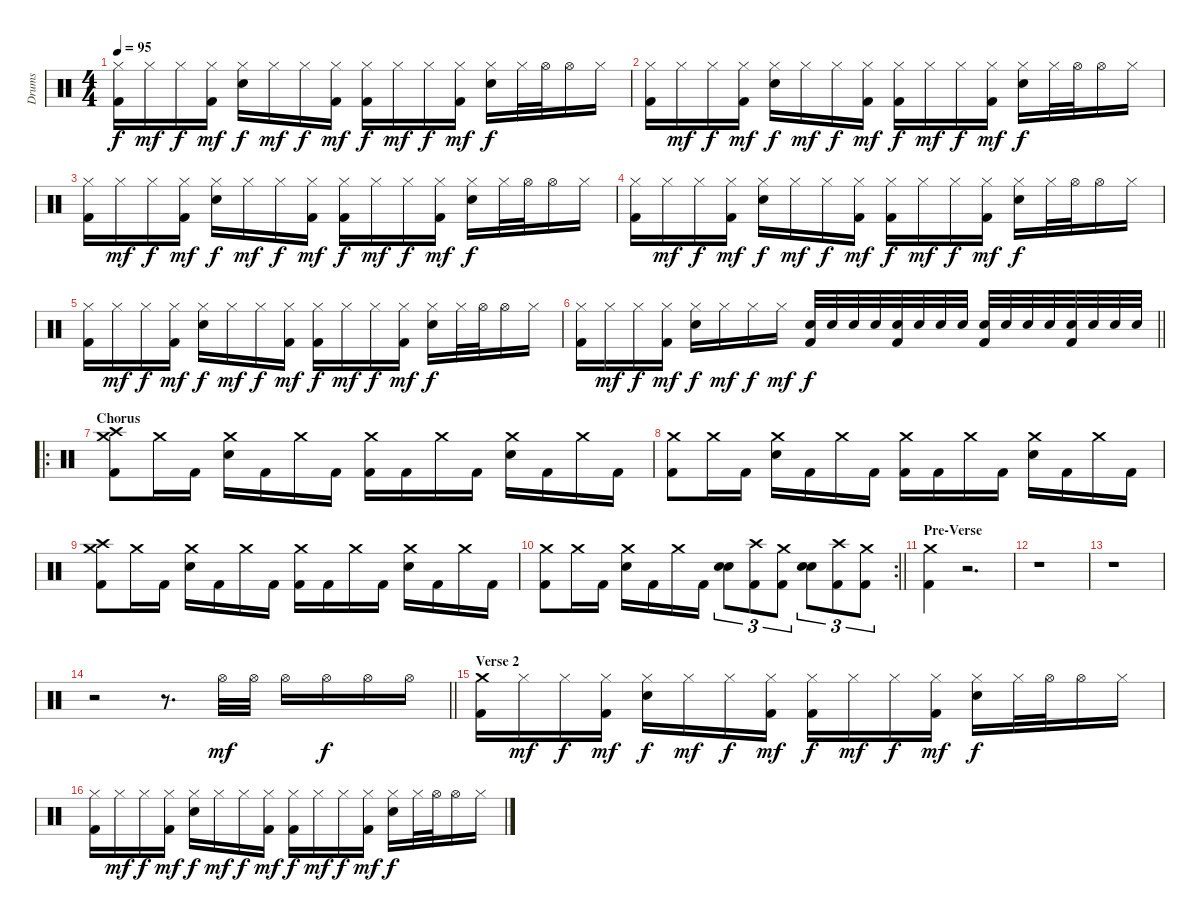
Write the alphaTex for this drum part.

\track ("Drums" "Drums") {instrument percussion}
\staff {score}
\articulation defaults
\ts (4 4)
\tempo 95
\clef neutral
\ks c
("Hi-Hat (closed)" "Kick (hit) 2").16{dy f} "Hi-Hat (closed)".16{dy mf} "Hi-Hat (closed)".16{dy f} ("Kick (hit) 2" "Hi-Hat (closed)").16{dy mf} ("Electric Snare (hit)" "Hi-Hat (closed)").16{dy f} "Hi-Hat (closed)".16{dy mf} "Hi-Hat (closed)".16{dy f} ("Kick (hit) 2" "Hi-Hat (closed)").16{dy mf} ("Kick (hit) 2" "Hi-Hat (closed)").16{dy f} "Hi-Hat (closed)".16{dy mf} "Hi-Hat (closed)".16{dy f} ("Kick (hit) 2" "Hi-Hat (closed)").16{dy mf} ("Electric Snare (hit)" "Hi-Hat (closed)").16{dy f} "Hi-Hat (closed)".32 "Hi-Hat (open)".32 "Hi-Hat (open)".16 "Hi-Hat (closed)".16 |
("Hi-Hat (closed)" "Kick (hit) 2").16 "Hi-Hat (closed)".16{dy mf} "Hi-Hat (closed)".16{dy f} ("Kick (hit) 2" "Hi-Hat (closed)").16{dy mf} ("Electric Snare (hit)" "Hi-Hat (closed)").16{dy f} "Hi-Hat (closed)".16{dy mf} "Hi-Hat (closed)".16{dy f} ("Kick (hit) 2" "Hi-Hat (closed)").16{dy mf} ("Kick (hit) 2" "Hi-Hat (closed)").16{dy f} "Hi-Hat (closed)".16{dy mf} "Hi-Hat (closed)".16{dy f} ("Kick (hit) 2" "Hi-Hat (closed)").16{dy mf} ("Electric Snare (hit)" "Hi-Hat (closed)").16{dy f} "Hi-Hat (closed)".32 "Hi-Hat (open)".32 "Hi-Hat (open)".16 "Hi-Hat (closed)".16 |
("Hi-Hat (closed)" "Kick (hit) 2").16 "Hi-Hat (closed)".16{dy mf} "Hi-Hat (closed)".16{dy f} ("Kick (hit) 2" "Hi-Hat (closed)").16{dy mf} ("Electric Snare (hit)" "Hi-Hat (closed)").16{dy f} "Hi-Hat (closed)".16{dy mf} "Hi-Hat (closed)".16{dy f} ("Kick (hit) 2" "Hi-Hat (closed)").16{dy mf} ("Kick (hit) 2" "Hi-Hat (closed)").16{dy f} "Hi-Hat (closed)".16{dy mf} "Hi-Hat (closed)".16{dy f} ("Kick (hit) 2" "Hi-Hat (closed)").16{dy mf} ("Electric Snare (hit)" "Hi-Hat (closed)").16{dy f} "Hi-Hat (closed)".32 "Hi-Hat (open)".32 "Hi-Hat (open)".16 "Hi-Hat (closed)".16 |
("Hi-Hat (closed)" "Kick (hit) 2").16 "Hi-Hat (closed)".16{dy mf} "Hi-Hat (closed)".16{dy f} ("Kick (hit) 2" "Hi-Hat (closed)").16{dy mf} ("Electric Snare (hit)" "Hi-Hat (closed)").16{dy f} "Hi-Hat (closed)".16{dy mf} "Hi-Hat (closed)".16{dy f} ("Kick (hit) 2" "Hi-Hat (closed)").16{dy mf} ("Kick (hit) 2" "Hi-Hat (closed)").16{dy f} "Hi-Hat (closed)".16{dy mf} "Hi-Hat (closed)".16{dy f} ("Kick (hit) 2" "Hi-Hat (closed)").16{dy mf} ("Electric Snare (hit)" "Hi-Hat (closed)").16{dy f} "Hi-Hat (closed)".32 "Hi-Hat (open)".32 "Hi-Hat (open)".16 "Hi-Hat (closed)".16 |
("Hi-Hat (closed)" "Kick (hit) 2").16 "Hi-Hat (closed)".16{dy mf} "Hi-Hat (closed)".16{dy f} ("Kick (hit) 2" "Hi-Hat (closed)").16{dy mf} ("Electric Snare (hit)" "Hi-Hat (closed)").16{dy f} "Hi-Hat (closed)".16{dy mf} "Hi-Hat (closed)".16{dy f} ("Kick (hit) 2" "Hi-Hat (closed)").16{dy mf} ("Kick (hit) 2" "Hi-Hat (closed)").16{dy f} "Hi-Hat (closed)".16{dy mf} "Hi-Hat (closed)".16{dy f} ("Kick (hit) 2" "Hi-Hat (closed)").16{dy mf} ("Electric Snare (hit)" "Hi-Hat (closed)").16{dy f} "Hi-Hat (closed)".32 "Hi-Hat (open)".32 "Hi-Hat (open)".16 "Hi-Hat (closed)".16 |
\barLineRight lightlight
("Hi-Hat (closed)" "Kick (hit) 2").16 "Hi-Hat (closed)".16{dy mf} "Hi-Hat (closed)".16{dy f} ("Kick (hit) 2" "Hi-Hat (closed)").16{dy mf} ("Electric Snare (hit)" "Hi-Hat (closed)").16{dy f} "Hi-Hat (closed)".16{dy mf} "Hi-Hat (closed)".16{dy f} "Hi-Hat (closed)".16{dy mf} ("Kick (hit) 2" "Electric Snare (hit)").32{dy f} "Electric Snare (hit)".32 "Electric Snare (hit)".32 "Electric Snare (hit)".32 ("Kick (hit) 2" "Electric Snare (hit)").32 "Electric Snare (hit)".32 "Electric Snare (hit)".32 "Electric Snare (hit)".32 ("Kick (hit) 2" "Electric Snare (hit)").32 "Electric Snare (hit)".32 "Electric Snare (hit)".32 "Electric Snare (hit)".32 ("Kick (hit) 2" "Electric Snare (hit)").32 "Electric Snare (hit)".32 "Electric Snare (hit)".32 "Electric Snare (hit)".32 |
\ro
\section ("" "Chorus")
("Crash high (hit)" "Crash medium (hit)" "Kick (hit) 2").8 "Crash medium (hit)".16 "Kick (hit) 2".16 ("Crash medium (hit)" "Electric Snare (hit)").16 "Kick (hit) 2".16 "Crash medium (hit)".16 "Kick (hit) 2".16 ("Crash medium (hit)" "Kick (hit) 2").16 "Kick (hit) 2".16 "Crash medium (hit)".16 "Kick (hit) 2".16 ("Electric Snare (hit)" "Crash medium (hit)").16 "Kick (hit) 2".16 "Crash medium (hit)".16 "Kick (hit) 2".16 |
("Crash medium (hit)" "Kick (hit) 2").8 "Crash medium (hit)".16 "Kick (hit) 2".16 ("Crash medium (hit)" "Electric Snare (hit)").16 "Kick (hit) 2".16 "Crash medium (hit)".16 "Kick (hit) 2".16 ("Crash medium (hit)" "Kick (hit) 2").16 "Kick (hit) 2".16 "Crash medium (hit)".16 "Kick (hit) 2".16 ("Electric Snare (hit)" "Crash medium (hit)").16 "Kick (hit) 2".16 "Crash medium (hit)".16 "Kick (hit) 2".16 |
("Crash high (hit)" "Crash medium (hit)" "Kick (hit) 2").8 "Crash medium (hit)".16 "Kick (hit) 2".16 ("Crash medium (hit)" "Electric Snare (hit)").16 "Kick (hit) 2".16 "Crash medium (hit)".16 "Kick (hit) 2".16 ("Crash medium (hit)" "Kick (hit) 2").16 "Kick (hit) 2".16 "Crash medium (hit)".16 "Kick (hit) 2".16 ("Electric Snare (hit)" "Crash medium (hit)").16 "Kick (hit) 2".16 "Crash medium (hit)".16 "Kick (hit) 2".16 |
\rc 2
\barLineRight lightlight
("Crash medium (hit)" "Kick (hit) 2").8 "Crash medium (hit)".16 "Kick (hit) 2".16 ("Crash medium (hit)" "Electric Snare (hit)").16 "Kick (hit) 2".16 "Crash medium (hit)".16 "Kick (hit) 2".16 ("Snare (hit) 2" "Electric Snare (hit)").8{tu (3 2)} ("Crash high (hit)" "Kick (hit) 2").8{tu (3 2)} ("Crash medium (hit)" "Kick (hit) 2").8{tu (3 2)} ("Snare (hit) 2" "Electric Snare (hit)").8{tu (3 2)} ("Crash high (hit)" "Kick (hit) 2").8{tu (3 2)} ("Crash medium (hit)" "Kick (hit) 2").8{tu (3 2)} |
\section ("" "Pre-Verse")
("Crash medium (hit)" "Kick (hit) 2").4 r.2{d} |
r.1 |
r.1 |
\barLineRight lightlight
r.2 r.8{d} "Hi-Hat (open)".32{dy mf} "Hi-Hat (open)".32 "Hi-Hat (open)".16 "Hi-Hat (open)".16{dy f} "Hi-Hat (open)".16 "Hi-Hat (open)".16 |
\section ("" "Verse 2")
("Crash medium (hit)" "Kick (hit) 2").16 "Hi-Hat (closed)".16{dy mf} "Hi-Hat (closed)".16{dy f} ("Kick (hit) 2" "Hi-Hat (closed)").16{dy mf} ("Electric Snare (hit)" "Hi-Hat (closed)").16{dy f} "Hi-Hat (closed)".16{dy mf} "Hi-Hat (closed)".16{dy f} ("Kick (hit) 2" "Hi-Hat (closed)").16{dy mf} ("Kick (hit) 2" "Hi-Hat (closed)").16{dy f} "Hi-Hat (closed)".16{dy mf} "Hi-Hat (closed)".16{dy f} ("Kick (hit) 2" "Hi-Hat (closed)").16{dy mf} ("Electric Snare (hit)" "Hi-Hat (closed)").16{dy f} "Hi-Hat (closed)".32 "Hi-Hat (open)".32 "Hi-Hat (open)".16 "Hi-Hat (closed)".16 |
("Hi-Hat (closed)" "Kick (hit) 2").16 "Hi-Hat (closed)".16{dy mf} "Hi-Hat (closed)".16{dy f} ("Kick (hit) 2" "Hi-Hat (closed)").16{dy mf} ("Electric Snare (hit)" "Hi-Hat (closed)").16{dy f} "Hi-Hat (closed)".16{dy mf} "Hi-Hat (closed)".16{dy f} ("Kick (hit) 2" "Hi-Hat (closed)").16{dy mf} ("Kick (hit) 2" "Hi-Hat (closed)").16{dy f} "Hi-Hat (closed)".16{dy mf} "Hi-Hat (closed)".16{dy f} ("Kick (hit) 2" "Hi-Hat (closed)").16{dy mf} ("Electric Snare (hit)" "Hi-Hat (closed)").16{dy f} "Hi-Hat (closed)".32 "Hi-Hat (open)".32 "Hi-Hat (open)".16 "Hi-Hat (closed)".16
